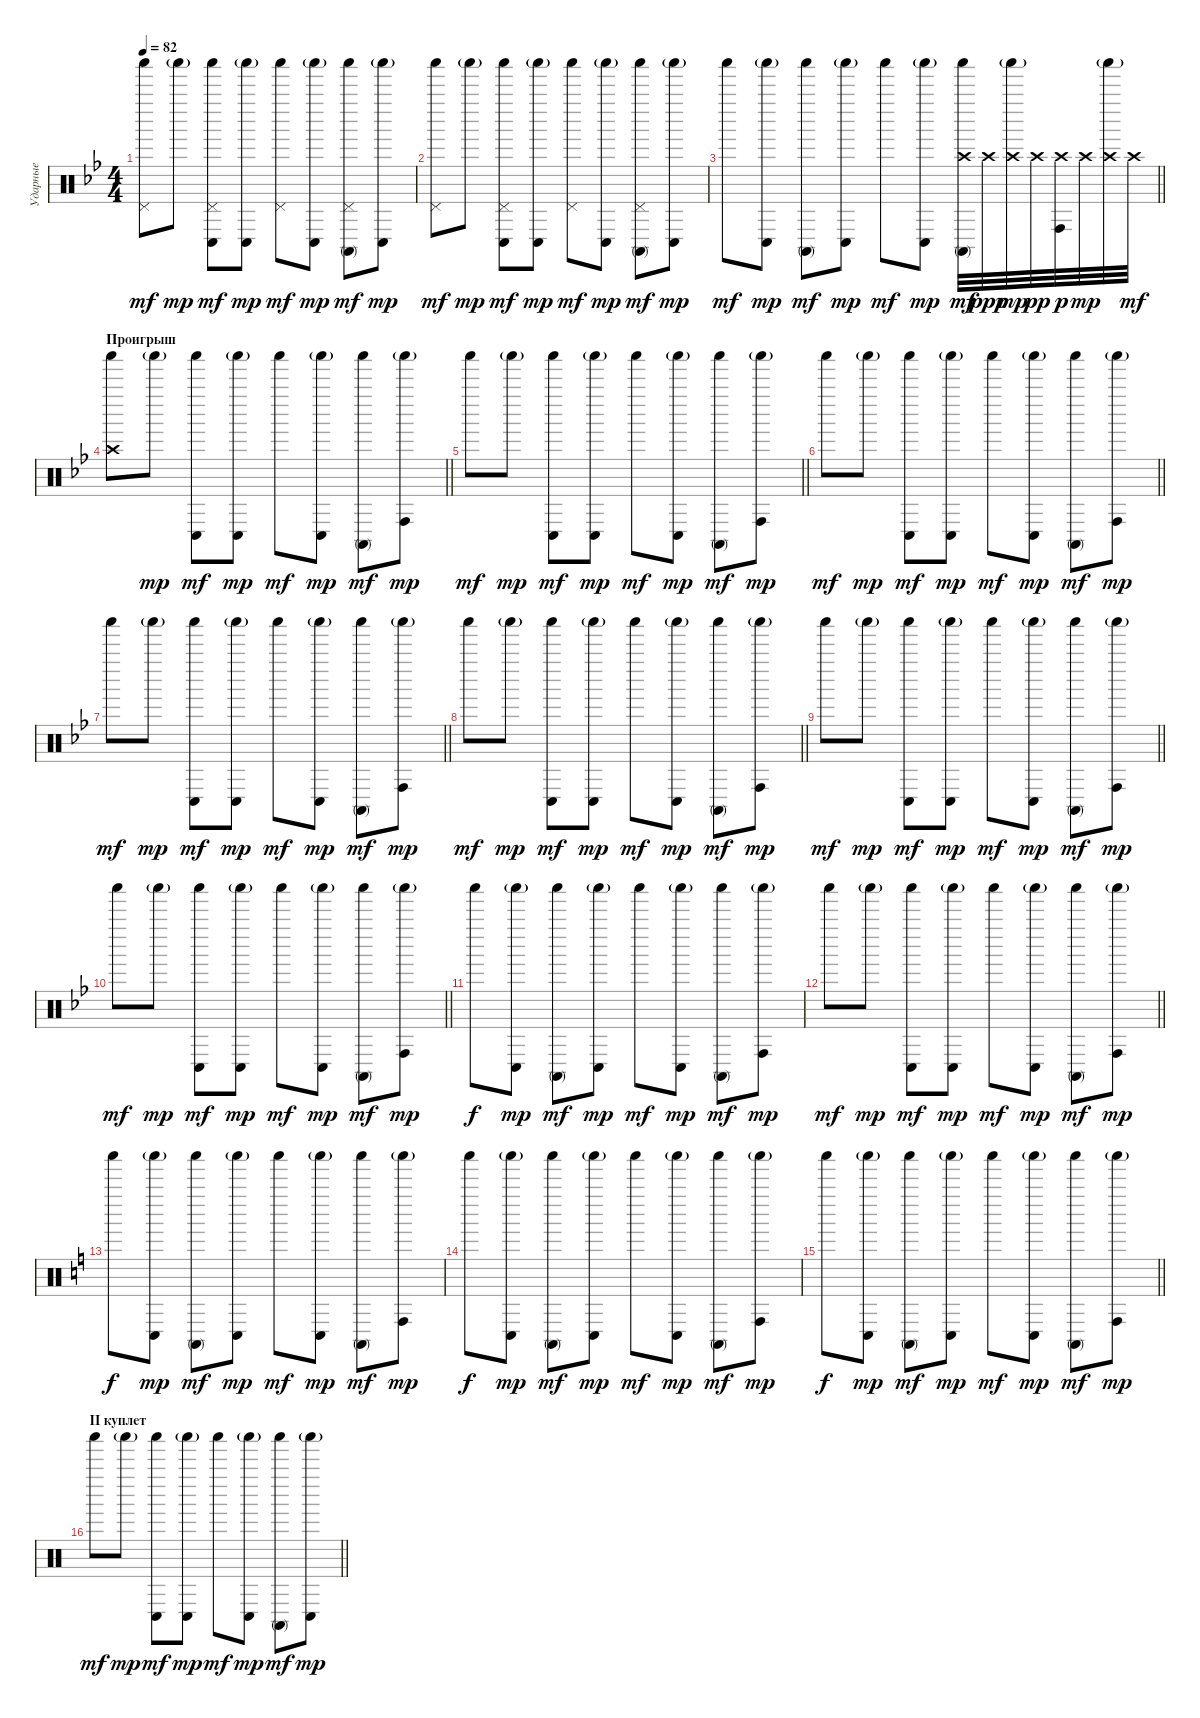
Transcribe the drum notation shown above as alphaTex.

\track ("Ударные" "Ударные") {instrument percussion}
\staff {score}
\articulation defaults
\ts (4 4)
\tempo 82
\clef neutral
\ks gminor
("Shaker (hit)" "Pedal Hi-Hat (hit)").8{dy mf} "Shaker (hit)"{g}.8{dy mp} ("Shaker (hit)" "Conga low (hit)" "Pedal Hi-Hat (hit)").8{dy mf} ("Shaker (hit)"{g} "Conga low (hit)").8{dy mp} ("Shaker (hit)" "Pedal Hi-Hat (hit)").8{dy mf} ("Shaker (hit)"{g} "Conga low (hit)").8{dy mp} ("Shaker (hit)" "Conga high (mute)" "Pedal Hi-Hat (hit)").8{dy mf} ("Shaker (hit)"{g} "Conga low (hit)").8{dy mp} |
("Shaker (hit)" "Pedal Hi-Hat (hit)").8{dy mf} "Shaker (hit)"{g}.8{dy mp} ("Shaker (hit)" "Conga low (hit)" "Pedal Hi-Hat (hit)").8{dy mf} ("Shaker (hit)"{g} "Conga low (hit)").8{dy mp} ("Shaker (hit)" "Pedal Hi-Hat (hit)").8{dy mf} ("Shaker (hit)"{g} "Conga low (hit)").8{dy mp} ("Shaker (hit)" "Conga high (mute)" "Pedal Hi-Hat (hit)").8{dy mf} ("Shaker (hit)"{g} "Conga low (hit)").8{dy mp} |
\barLineRight lightlight "Shaker (hit)".8{dy mf}
("Conga low (hit)" "Shaker (hit)"{g}).8{dy mp} ("Conga high (mute)" "Shaker (hit)").8{dy mf} ("Conga low (hit)" "Shaker (hit)"{g}).8{dy mp} "Shaker (hit)".8{dy mf} ("Conga low (hit)" "Shaker (hit)"{g}).8{dy mp} ("Crash high (hit)" "Shaker (hit)" "Conga high (mute)").32{dy mf} "Crash high (hit)".32{dy ppp} ("Crash high (hit)" "Shaker (hit)"{g}).32{dy mp} "Crash high (hit)".32{dy pp} ("Crash high (hit)" "Conga high (hit)").32{dy p} "Crash high (hit)".32{dy mp} ("Crash high (hit)" "Shaker (hit)"{g}).32 "Crash high (hit)".32{dy mf} |
\section ("" "Проигрыш")
\barLineRight lightlight
("Shaker (hit)" "Crash high (hit)").8 "Shaker (hit)"{g}.8{dy mp} ("Shaker (hit)" "Conga low (hit)").8{dy mf} ("Shaker (hit)"{g} "Conga low (hit)").8{dy mp} "Shaker (hit)".8{dy mf} ("Shaker (hit)"{g} "Conga low (hit)").8{dy mp} ("Shaker (hit)" "Conga high (mute)").8{dy mf} ("Shaker (hit)"{g} "Conga high (hit)").8{dy mp} |
\barLineRight lightlight "Shaker (hit)".8{dy mf} "Shaker (hit)"{g}.8{dy mp}
("Shaker (hit)" "Conga low (hit)").8{dy mf} ("Shaker (hit)"{g} "Conga low (hit)").8{dy mp} "Shaker (hit)".8{dy mf} ("Shaker (hit)"{g} "Conga low (hit)").8{dy mp} ("Shaker (hit)" "Conga high (mute)").8{dy mf} ("Shaker (hit)"{g} "Conga high (hit)").8{dy mp} |
\barLineRight lightlight "Shaker (hit)".8{dy mf} "Shaker (hit)"{g}.8{dy mp}
("Shaker (hit)" "Conga low (hit)").8{dy mf} ("Shaker (hit)"{g} "Conga low (hit)").8{dy mp} "Shaker (hit)".8{dy mf} ("Shaker (hit)"{g} "Conga low (hit)").8{dy mp} ("Shaker (hit)" "Conga high (mute)").8{dy mf} ("Shaker (hit)"{g} "Conga high (hit)").8{dy mp} |
\barLineRight lightlight "Shaker (hit)".8{dy mf} "Shaker (hit)"{g}.8{dy mp}
("Shaker (hit)" "Conga low (hit)").8{dy mf} ("Shaker (hit)"{g} "Conga low (hit)").8{dy mp} "Shaker (hit)".8{dy mf} ("Shaker (hit)"{g} "Conga low (hit)").8{dy mp} ("Shaker (hit)" "Conga high (mute)").8{dy mf} ("Shaker (hit)"{g} "Conga high (hit)").8{dy mp} |
\barLineRight lightlight "Shaker (hit)".8{dy mf} "Shaker (hit)"{g}.8{dy mp}
("Shaker (hit)" "Conga low (hit)").8{dy mf} ("Shaker (hit)"{g} "Conga low (hit)").8{dy mp} "Shaker (hit)".8{dy mf} ("Shaker (hit)"{g} "Conga low (hit)").8{dy mp} ("Shaker (hit)" "Conga high (mute)").8{dy mf} ("Shaker (hit)"{g} "Conga high (hit)").8{dy mp} |
\barLineRight lightlight "Shaker (hit)".8{dy mf} "Shaker (hit)"{g}.8{dy mp}
("Shaker (hit)" "Conga low (hit)").8{dy mf} ("Shaker (hit)"{g} "Conga low (hit)").8{dy mp} "Shaker (hit)".8{dy mf} ("Shaker (hit)"{g} "Conga low (hit)").8{dy mp} ("Shaker (hit)" "Conga high (mute)").8{dy mf} ("Shaker (hit)"{g} "Conga high (hit)").8{dy mp} |
\barLineRight lightlight "Shaker (hit)".8{dy mf} "Shaker (hit)"{g}.8{dy mp}
("Shaker (hit)" "Conga low (hit)").8{dy mf} ("Shaker (hit)"{g} "Conga low (hit)").8{dy mp} "Shaker (hit)".8{dy mf} ("Shaker (hit)"{g} "Conga low (hit)").8{dy mp} ("Shaker (hit)" "Conga high (mute)").8{dy mf} ("Shaker (hit)"{g} "Conga high (hit)").8{dy mp} |
"Shaker (hit)".8{dy f} ("Shaker (hit)"{g} "Conga low (hit)").8{dy mp} ("Shaker (hit)" "Conga high (mute)").8{dy mf} ("Shaker (hit)"{g} "Conga low (hit)").8{dy mp} "Shaker (hit)".8{dy mf} ("Shaker (hit)"{g} "Conga low (hit)").8{dy mp} ("Shaker (hit)" "Conga high (mute)").8{dy mf} ("Shaker (hit)"{g} "Conga high (hit)").8{dy mp} |
\barLineRight lightlight "Shaker (hit)".8{dy mf} "Shaker (hit)"{g}.8{dy mp}
("Shaker (hit)" "Conga low (hit)").8{dy mf} ("Shaker (hit)"{g} "Conga low (hit)").8{dy mp} "Shaker (hit)".8{dy mf} ("Shaker (hit)"{g} "Conga low (hit)").8{dy mp} ("Shaker (hit)" "Conga high (mute)").8{dy mf} ("Shaker (hit)"{g} "Conga high (hit)").8{dy mp} |
\section ("" "")
\ks aminor "Shaker (hit)".8{dy f}
("Shaker (hit)"{g} "Conga low (hit)").8{dy mp} ("Shaker (hit)" "Conga high (mute)").8{dy mf} ("Shaker (hit)"{g} "Conga low (hit)").8{dy mp} "Shaker (hit)".8{dy mf} ("Shaker (hit)"{g} "Conga low (hit)").8{dy mp} ("Shaker (hit)" "Conga high (mute)").8{dy mf} ("Shaker (hit)"{g} "Conga high (hit)").8{dy mp} |
"Shaker (hit)".8{dy f} ("Shaker (hit)"{g} "Conga low (hit)").8{dy mp} ("Shaker (hit)" "Conga high (mute)").8{dy mf} ("Shaker (hit)"{g} "Conga low (hit)").8{dy mp} "Shaker (hit)".8{dy mf} ("Shaker (hit)"{g} "Conga low (hit)").8{dy mp} ("Shaker (hit)" "Conga high (mute)").8{dy mf} ("Shaker (hit)"{g} "Conga high (hit)").8{dy mp} |
\barLineRight lightlight "Shaker (hit)".8{dy f}
("Shaker (hit)"{g} "Conga low (hit)").8{dy mp} ("Shaker (hit)" "Conga high (mute)").8{dy mf} ("Shaker (hit)"{g} "Conga low (hit)").8{dy mp} "Shaker (hit)".8{dy mf} ("Shaker (hit)"{g} "Conga low (hit)").8{dy mp} ("Shaker (hit)" "Conga high (mute)").8{dy mf} ("Shaker (hit)"{g} "Conga high (hit)").8{dy mp} |
\section ("" "II куплет")
\barLineRight lightlight "Shaker (hit)".8{dy mf} "Shaker (hit)"{g}.8{dy mp}
("Shaker (hit)" "Conga low (hit)").8{dy mf} ("Shaker (hit)"{g} "Conga low (hit)").8{dy mp} "Shaker (hit)".8{dy mf} ("Shaker (hit)"{g} "Conga low (hit)").8{dy mp} ("Shaker (hit)" "Conga high (mute)").8{dy mf} ("Shaker (hit)"{g} "Conga low (hit)").8{dy mp}
